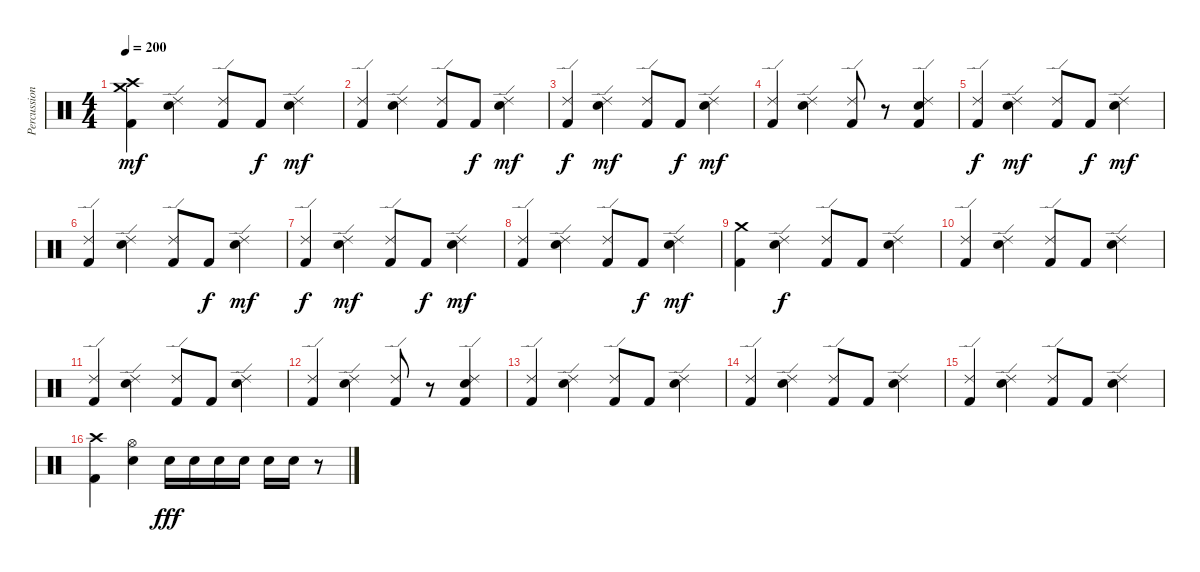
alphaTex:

\track ("Percussion" "Percussion") {instrument percussion}
\staff {score}
\articulation defaults
\ts (4 4)
\tempo 200
\clef neutral
\ks c
("Crash high (hit)" "Crash medium (hit)" "Kick (hit) 2").4{dy mf} ("Ride (edge) 2" "Snare (hit) 2").4 ("Ride (edge) 2" "Kick (hit) 2").8 "Kick (hit) 2".8{dy f} ("Ride (edge) 2" "Snare (hit) 2").4{dy mf} |
("Ride (edge) 2" "Kick (hit) 2").4 ("Ride (edge) 2" "Snare (hit) 2").4 ("Ride (edge) 2" "Kick (hit) 2").8 "Kick (hit) 2".8{dy f} ("Ride (edge) 2" "Snare (hit) 2").4{dy mf} |
("Ride (edge) 2" "Kick (hit) 2").4{dy f} ("Ride (edge) 2" "Snare (hit) 2").4{dy mf} ("Ride (edge) 2" "Kick (hit) 2").8 "Kick (hit) 2".8{dy f} ("Ride (edge) 2" "Snare (hit) 2").4{dy mf} |
("Ride (edge) 2" "Kick (hit) 2").4 ("Ride (edge) 2" "Snare (hit) 2").4 ("Ride (edge) 2" "Kick (hit) 2").8 r.8 ("Ride (edge) 2" "Snare (hit) 2" "Kick (hit) 2").4 |
("Ride (edge) 2" "Kick (hit) 2").4{dy f} ("Ride (edge) 2" "Snare (hit) 2").4{dy mf} ("Ride (edge) 2" "Kick (hit) 2").8 "Kick (hit) 2".8{dy f} ("Ride (edge) 2" "Snare (hit) 2").4{dy mf} |
("Ride (edge) 2" "Kick (hit) 2").4 ("Ride (edge) 2" "Snare (hit) 2").4 ("Ride (edge) 2" "Kick (hit) 2").8 "Kick (hit) 2".8{dy f} ("Ride (edge) 2" "Snare (hit) 2").4{dy mf} |
("Ride (edge) 2" "Kick (hit) 2").4{dy f} ("Ride (edge) 2" "Snare (hit) 2").4{dy mf} ("Ride (edge) 2" "Kick (hit) 2").8 "Kick (hit) 2".8{dy f} ("Ride (edge) 2" "Snare (hit) 2").4{dy mf} |
("Ride (edge) 2" "Kick (hit) 2").4 ("Ride (edge) 2" "Snare (hit) 2").4 ("Ride (edge) 2" "Kick (hit) 2").8 "Kick (hit) 2".8{dy f} ("Ride (edge) 2" "Snare (hit) 2").4{dy mf} |
("Crash medium (hit)" "Kick (hit) 2").4 ("Ride (edge) 2" "Snare (hit) 2").4{dy f} ("Ride (edge) 2" "Kick (hit) 2").8 "Kick (hit) 2".8 ("Ride (edge) 2" "Snare (hit) 2").4 |
("Ride (edge) 2" "Kick (hit) 2").4 ("Ride (edge) 2" "Snare (hit) 2").4 ("Ride (edge) 2" "Kick (hit) 2").8 "Kick (hit) 2".8 ("Ride (edge) 2" "Snare (hit) 2").4 |
("Ride (edge) 2" "Kick (hit) 2").4 ("Ride (edge) 2" "Snare (hit) 2").4 ("Ride (edge) 2" "Kick (hit) 2").8 "Kick (hit) 2".8 ("Ride (edge) 2" "Snare (hit) 2").4 |
("Ride (edge) 2" "Kick (hit) 2").4 ("Ride (edge) 2" "Snare (hit) 2").4 ("Ride (edge) 2" "Kick (hit) 2").8 r.8 ("Ride (edge) 2" "Snare (hit) 2" "Kick (hit) 2").4 |
("Ride (edge) 2" "Kick (hit) 2").4 ("Ride (edge) 2" "Snare (hit) 2").4 ("Ride (edge) 2" "Kick (hit) 2").8 "Kick (hit) 2".8 ("Ride (edge) 2" "Snare (hit) 2").4 |
("Ride (edge) 2" "Kick (hit) 2").4 ("Ride (edge) 2" "Snare (hit) 2").4 ("Ride (edge) 2" "Kick (hit) 2").8 "Kick (hit) 2".8 ("Ride (edge) 2" "Snare (hit) 2").4 |
("Ride (edge) 2" "Kick (hit) 2").4 ("Ride (edge) 2" "Snare (hit) 2").4 ("Ride (edge) 2" "Kick (hit) 2").8 "Kick (hit) 2".8 ("Ride (edge) 2" "Snare (hit) 2").4 |
("Crash high (hit)" "Kick (hit) 2").4 ("Hi-Hat (open)" "Snare (hit) 2").4 "Snare (hit) 2".16{dy fff} "Snare (hit) 2".16 "Snare (hit) 2".16 "Snare (hit) 2".16 "Snare (hit) 2".16 "Snare (hit) 2".16 r.8
